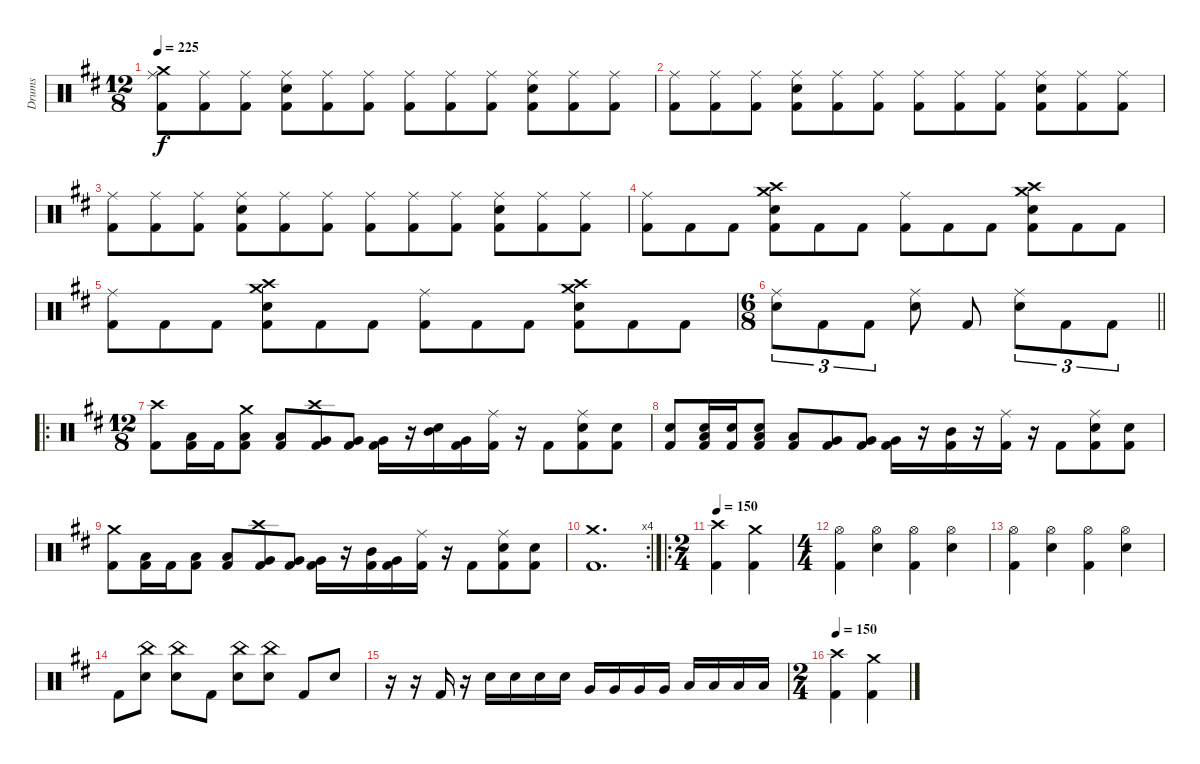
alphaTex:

\track ("Drums" "Drums") {instrument percussion}
\staff {score}
\articulation defaults
\ts (12 8)
\tempo 225
\clef neutral
\ks d
("Crash medium (hit)" "Ride (middle)" "Kick (hit) 2").8{dy f} ("Ride (middle)" "Kick (hit) 2").8 ("Ride (middle)" "Kick (hit) 2").8 ("Ride (middle)" "Electric Snare (hit)" "Kick (hit) 2").8 ("Ride (middle)" "Kick (hit) 2").8 ("Ride (middle)" "Kick (hit) 2").8 ("Ride (middle)" "Kick (hit) 2").8 ("Ride (middle)" "Kick (hit) 2").8 ("Ride (middle)" "Kick (hit) 2").8 ("Ride (middle)" "Electric Snare (hit)" "Kick (hit) 2").8 ("Ride (middle)" "Kick (hit) 2").8 ("Ride (middle)" "Kick (hit) 2").8 |
("Ride (middle)" "Kick (hit) 2").8 ("Ride (middle)" "Kick (hit) 2").8 ("Ride (middle)" "Kick (hit) 2").8 ("Ride (middle)" "Electric Snare (hit)" "Kick (hit) 2").8 ("Ride (middle)" "Kick (hit) 2").8 ("Ride (middle)" "Kick (hit) 2").8 ("Ride (middle)" "Kick (hit) 2").8 ("Ride (middle)" "Kick (hit) 2").8 ("Ride (middle)" "Kick (hit) 2").8 ("Ride (middle)" "Electric Snare (hit)" "Kick (hit) 2").8 ("Ride (middle)" "Kick (hit) 2").8 ("Ride (middle)" "Kick (hit) 2").8 |
("Ride (middle)" "Kick (hit) 2").8 ("Ride (middle)" "Kick (hit) 2").8 ("Ride (middle)" "Kick (hit) 2").8 ("Ride (middle)" "Electric Snare (hit)" "Kick (hit) 2").8 ("Ride (middle)" "Kick (hit) 2").8 ("Ride (middle)" "Kick (hit) 2").8 ("Ride (middle)" "Kick (hit) 2").8 ("Ride (middle)" "Kick (hit) 2").8 ("Ride (middle)" "Kick (hit) 2").8 ("Ride (middle)" "Electric Snare (hit)" "Kick (hit) 2").8 ("Ride (middle)" "Kick (hit) 2").8 ("Ride (middle)" "Kick (hit) 2").8 |
("Ride (middle)" "Kick (hit) 2").8 "Kick (hit) 2".8 "Kick (hit) 2".8 ("Crash high (hit)" "Crash medium (hit)" "Electric Snare (hit)" "Kick (hit) 2").8 "Kick (hit) 2".8 "Kick (hit) 2".8 ("Ride (middle)" "Kick (hit) 2").8 "Kick (hit) 2".8 "Kick (hit) 2".8 ("Crash high (hit)" "Crash medium (hit)" "Electric Snare (hit)" "Kick (hit) 2").8 "Kick (hit) 2".8 "Kick (hit) 2".8 |
("Ride (middle)" "Kick (hit) 2").8 "Kick (hit) 2".8 "Kick (hit) 2".8 ("Crash high (hit)" "Crash medium (hit)" "Electric Snare (hit)" "Kick (hit) 2").8 "Kick (hit) 2".8 "Kick (hit) 2".8 ("Ride (middle)" "Kick (hit) 2").8 "Kick (hit) 2".8 "Kick (hit) 2".8 ("Crash high (hit)" "Crash medium (hit)" "Electric Snare (hit)" "Kick (hit) 2").8 "Kick (hit) 2".8 "Kick (hit) 2".8 |
\ts (6 8)
\barLineRight lightlight
("Ride (middle)" "Electric Snare (hit)").8{tu (3 2)} "Kick (hit) 2".8{tu (3 2)} "Kick (hit) 2".8{tu (3 2)} ("Ride (middle)" "Electric Snare (hit)").8 "Kick (hit) 2".8 ("Ride (middle)" "Electric Snare (hit)").8{tu (3 2)} "Kick (hit) 2".8{tu (3 2)} "Kick (hit) 2".8{tu (3 2)} |
\ro
\ts (12 8)
("Crash high (hit)" "Kick (hit) 2").8 ("Low Tom (hit)" "Kick (hit) 2").16 "Kick (hit) 2".16 ("Crash medium (hit)" "Low Tom (hit)" "Kick (hit) 2").8 ("Low Tom (hit)" "Kick (hit) 2").8 ("Crash high (hit)" "Very Low Tom (hit)" "Kick (hit) 2").8 ("Very Low Tom (hit)" "Kick (hit) 2").8 ("Very Low Tom (hit)" "Kick (hit) 2").16 r.16 ("Mid Tom (hit)" "Electric Snare (hit)").16 ("Very Low Tom (hit)" "Kick (hit) 2").16 ("Ride (middle)" "Kick (hit) 2").16 r.16 "Kick (hit) 2".8 ("Ride (middle)" "Electric Snare (hit)" "Kick (hit) 2").8 ("Electric Snare (hit)" "Kick (hit) 2").8 |
("Electric Snare (hit)" "Kick (hit) 2").8 ("Electric Snare (hit)" "Low Tom (hit)" "Kick (hit) 2").16 ("Electric Snare (hit)" "Kick (hit) 2").16 ("Electric Snare (hit)" "Low Tom (hit)" "Kick (hit) 2").8 ("Low Tom (hit)" "Kick (hit) 2").8 ("Very Low Tom (hit)" "Kick (hit) 2").8 ("Very Low Tom (hit)" "Kick (hit) 2").8 ("Very Low Tom (hit)" "Kick (hit) 2").16 r.16 ("Mid Tom (hit)" "Kick (hit) 2").16 r.16 ("Ride (middle)" "Kick (hit) 2").16 r.16 "Kick (hit) 2".8 ("Ride (middle)" "Electric Snare (hit)" "Kick (hit) 2").8 ("Electric Snare (hit)" "Kick (hit) 2").8 |
("Crash medium (hit)" "Kick (hit) 2").8 ("Low Tom (hit)" "Kick (hit) 2").16 "Kick (hit) 2".16 ("Low Tom (hit)" "Kick (hit) 2").8 ("Low Tom (hit)" "Kick (hit) 2").8 ("Crash high (hit)" "Very Low Tom (hit)" "Kick (hit) 2").8 ("Very Low Tom (hit)" "Kick (hit) 2").8 ("Very Low Tom (hit)" "Kick (hit) 2").16 r.16 ("Mid Tom (hit)" "Kick (hit) 2").16 ("Very Low Tom (hit)" "Kick (hit) 2").16 ("Ride (middle)" "Kick (hit) 2").16 r.16 "Kick (hit) 2".8 ("Ride (middle)" "Electric Snare (hit)" "Kick (hit) 2").8 ("Electric Snare (hit)" "Kick (hit) 2").8 |
\rc 4
("Crash medium (hit)" "Kick (hit) 2").1{d} |
\ro
\ts (2 4)
\tempo 145
\tempo 150
("Crash high (hit)" "Kick (hit) 2").4 ("Crash medium (hit)" "Kick (hit) 2").4 |
\ts (4 4)
("Hi-Hat (open)" "Kick (hit) 2").4 ("Hi-Hat (open)" "Electric Snare (hit)").4 ("Hi-Hat (open)" "Kick (hit) 2").4 ("Hi-Hat (open)" "Electric Snare (hit)").4 |
("Hi-Hat (open)" "Kick (hit) 2").4 ("Hi-Hat (open)" "Electric Snare (hit)").4 ("Hi-Hat (open)" "Kick (hit) 2").4 ("Hi-Hat (open)" "Electric Snare (hit)").4 |
"Kick (hit) 2".8 ("China (hit)" "Electric Snare (hit)").8 ("China (hit)" "Electric Snare (hit)").8 "Kick (hit) 2".8 ("China (hit)" "Electric Snare (hit)").8 ("China (hit)" "Electric Snare (hit)").8 "Kick (hit) 2".8 "Electric Snare (hit)".8 |
r.16 r.16 "Kick (hit) 2".16 r.16 "Electric Snare (hit)".16 "Electric Snare (hit)".16 "Electric Snare (hit)".16 "Electric Snare (hit)".16 "Very Low Tom (hit)".16 "Very Low Tom (hit)".16 "Very Low Tom (hit)".16 "Very Low Tom (hit)".16 "Low Tom (hit)".16 "Low Tom (hit)".16 "Low Tom (hit)".16 "Low Tom (hit)".16 |
\ts (2 4)
\tempo 145
\tempo 150
("Crash high (hit)" "Kick (hit) 2").4 ("Crash medium (hit)" "Kick (hit) 2").4
